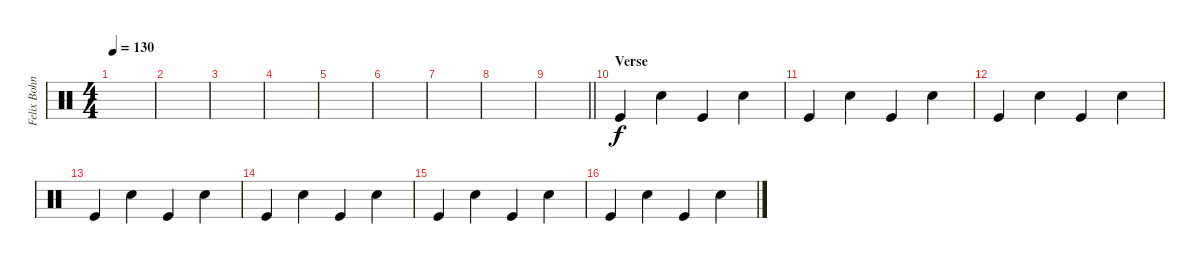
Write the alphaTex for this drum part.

\track ("Felix Bohnke" "Felix Bohn") {instrument percussion}
\staff {score}
\articulation defaults
\ts (4 4)
\tempo 130
\clef neutral
\ks c
|
|
|
|
|
|
|
|
\barLineRight lightlight
|
\section ("" "Verse")
"Kick (hit)".4 "Snare (hit) 2".4 "Kick (hit)".4 "Snare (hit) 2".4 |
"Kick (hit)".4 "Snare (hit) 2".4 "Kick (hit)".4 "Snare (hit) 2".4 |
"Kick (hit)".4 "Snare (hit) 2".4 "Kick (hit)".4 "Snare (hit) 2".4 |
"Kick (hit)".4 "Snare (hit) 2".4 "Kick (hit)".4 "Snare (hit) 2".4 |
"Kick (hit)".4 "Snare (hit) 2".4 "Kick (hit)".4 "Snare (hit) 2".4 |
"Kick (hit)".4 "Snare (hit) 2".4 "Kick (hit)".4 "Snare (hit) 2".4 |
"Kick (hit)".4 "Snare (hit) 2".4 "Kick (hit)".4 "Snare (hit) 2".4
